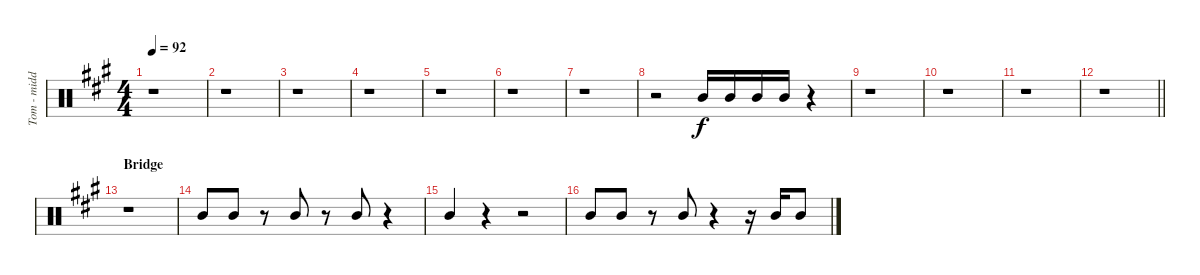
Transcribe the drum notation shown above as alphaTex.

\track ("Tom - middle" "Tom - midd") {instrument percussion}
\staff {score}
\articulation defaults
\ts (4 4)
\tempo 92
\clef neutral
\ks f#minor
r.1{dy f} |
r.1 |
r.1 |
r.1 |
r.1 |
r.1 |
r.1 |
r.2 "Mid Tom (hit)".16{beam Up} "Mid Tom (hit)".16{beam Up} "Mid Tom (hit)".16{beam Up} "Mid Tom (hit)".16{beam Up} r.4 |
r.1 |
r.1 |
r.1 |
\barLineRight lightlight
r.1 |
\section ("" "Bridge")
r.1 |
"Mid Tom (hit)".8{beam Up} "Mid Tom (hit)".8{beam Up} r.8 "Mid Tom (hit)".8{beam Up} r.8 "Mid Tom (hit)".8{beam Up} r.4 |
"Mid Tom (hit)".4{beam Up} r.4 r.2 |
"Mid Tom (hit)".8{beam Up} "Mid Tom (hit)".8{beam Up} r.8 "Mid Tom (hit)".8{beam Up} r.4 r.16 "Mid Tom (hit)".16{beam Up} "Mid Tom (hit)".8{beam Up}
